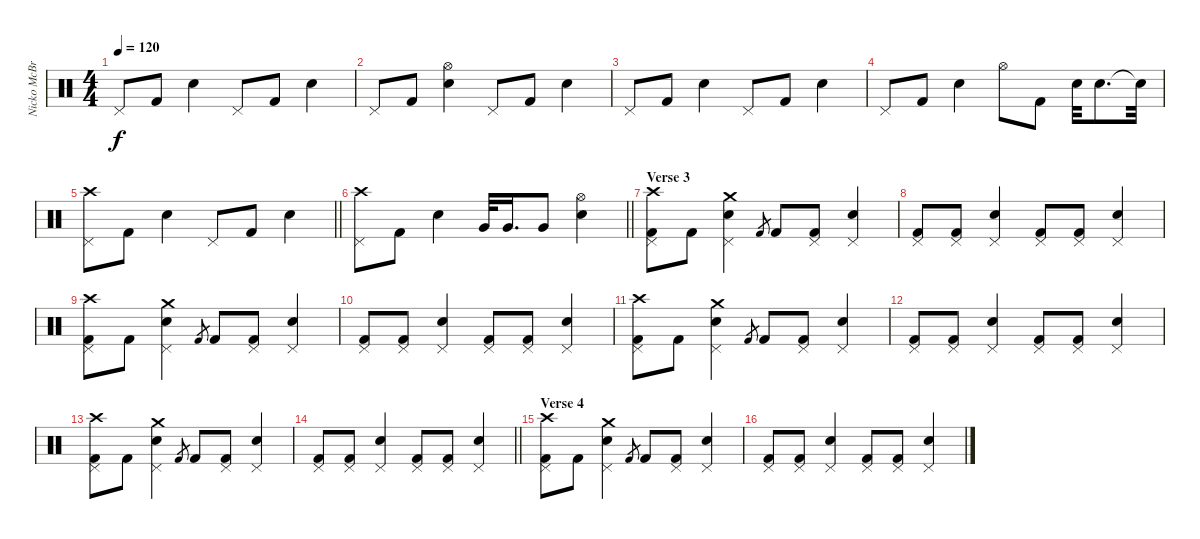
\track ("Nicko McBrain" "Nicko McBr") {instrument percussion}
\staff {score}
\articulation defaults
\ts (4 4)
\tempo 120
\clef neutral
\ks c "Pedal Hi-Hat (hit)".8{dy f} "Kick (hit) 2".8 "Electric Snare (hit)".4 "Pedal Hi-Hat (hit)".8 "Kick (hit) 2".8 "Electric Snare (hit)".4
|
"Pedal Hi-Hat (hit)".8 "Kick (hit) 2".8 ("Hi-Hat (open)" "Electric Snare (hit)").4 "Pedal Hi-Hat (hit)".8 "Kick (hit) 2".8 "Electric Snare (hit)".4 |
"Pedal Hi-Hat (hit)".8 "Kick (hit) 2".8 "Electric Snare (hit)".4 "Pedal Hi-Hat (hit)".8 "Kick (hit) 2".8 "Electric Snare (hit)".4 |
"Pedal Hi-Hat (hit)".8 "Kick (hit) 2".8 "Electric Snare (hit)".4 "Hi-Hat (open)".8 "Kick (hit) 2".8 "Electric Snare (hit)".32 "Electric Snare (hit)".8{d} "Electric Snare (hit)"{t}.32 |
\barLineRight lightlight
("Crash high (hit)" "Pedal Hi-Hat (hit)").8 "Kick (hit) 2".8 "Electric Snare (hit)".4 "Pedal Hi-Hat (hit)".8 "Kick (hit) 2".8 "Electric Snare (hit)".4 |
\barLineRight lightlight
("Crash high (hit)" "Pedal Hi-Hat (hit)").8 "Kick (hit) 2".8 "Electric Snare (hit)".4 "Very Low Tom (hit)".32 "Very Low Tom (hit)".16{d} "Very Low Tom (hit)".8 ("Hi-Hat (open)" "Electric Snare (hit)").4 |
\section ("" "Verse 3")
("Crash high (hit)" "Pedal Hi-Hat (hit)" "Kick (hit) 2").8 "Kick (hit) 2".8 ("Pedal Hi-Hat (hit)" "Electric Snare (hit)" "Crash medium (hit)").4 "Kick (hit) 2".8{gr} "Kick (hit) 2".8 ("Pedal Hi-Hat (hit)" "Kick (hit) 2").8 ("Pedal Hi-Hat (hit)" "Electric Snare (hit)").4 |
("Pedal Hi-Hat (hit)" "Kick (hit) 2").8 ("Pedal Hi-Hat (hit)" "Kick (hit) 2").8 ("Pedal Hi-Hat (hit)" "Electric Snare (hit)").4 ("Pedal Hi-Hat (hit)" "Kick (hit) 2").8 ("Pedal Hi-Hat (hit)" "Kick (hit) 2").8 ("Pedal Hi-Hat (hit)" "Electric Snare (hit)").4 |
("Crash high (hit)" "Pedal Hi-Hat (hit)" "Kick (hit) 2").8 "Kick (hit) 2".8 ("Pedal Hi-Hat (hit)" "Electric Snare (hit)" "Crash medium (hit)").4 "Kick (hit) 2".8{gr} "Kick (hit) 2".8 ("Pedal Hi-Hat (hit)" "Kick (hit) 2").8 ("Pedal Hi-Hat (hit)" "Electric Snare (hit)").4 |
("Pedal Hi-Hat (hit)" "Kick (hit) 2").8 ("Pedal Hi-Hat (hit)" "Kick (hit) 2").8 ("Pedal Hi-Hat (hit)" "Electric Snare (hit)").4 ("Pedal Hi-Hat (hit)" "Kick (hit) 2").8 ("Pedal Hi-Hat (hit)" "Kick (hit) 2").8 ("Pedal Hi-Hat (hit)" "Electric Snare (hit)").4 |
("Crash high (hit)" "Pedal Hi-Hat (hit)" "Kick (hit) 2").8 "Kick (hit) 2".8 ("Pedal Hi-Hat (hit)" "Electric Snare (hit)" "Crash medium (hit)").4 "Kick (hit) 2".8{gr} "Kick (hit) 2".8 ("Pedal Hi-Hat (hit)" "Kick (hit) 2").8 ("Pedal Hi-Hat (hit)" "Electric Snare (hit)").4 |
("Pedal Hi-Hat (hit)" "Kick (hit) 2").8 ("Pedal Hi-Hat (hit)" "Kick (hit) 2").8 ("Pedal Hi-Hat (hit)" "Electric Snare (hit)").4 ("Pedal Hi-Hat (hit)" "Kick (hit) 2").8 ("Pedal Hi-Hat (hit)" "Kick (hit) 2").8 ("Pedal Hi-Hat (hit)" "Electric Snare (hit)").4 |
("Crash high (hit)" "Pedal Hi-Hat (hit)" "Kick (hit) 2").8 "Kick (hit) 2".8 ("Pedal Hi-Hat (hit)" "Electric Snare (hit)" "Crash medium (hit)").4 "Kick (hit) 2".8{gr} "Kick (hit) 2".8 ("Pedal Hi-Hat (hit)" "Kick (hit) 2").8 ("Pedal Hi-Hat (hit)" "Electric Snare (hit)").4 |
\barLineRight lightlight
("Pedal Hi-Hat (hit)" "Kick (hit) 2").8 ("Pedal Hi-Hat (hit)" "Kick (hit) 2").8 ("Pedal Hi-Hat (hit)" "Electric Snare (hit)").4 ("Pedal Hi-Hat (hit)" "Kick (hit) 2").8 ("Pedal Hi-Hat (hit)" "Kick (hit) 2").8 ("Pedal Hi-Hat (hit)" "Electric Snare (hit)").4 |
\section ("" "Verse 4")
("Crash high (hit)" "Pedal Hi-Hat (hit)" "Kick (hit) 2").8 "Kick (hit) 2".8 ("Pedal Hi-Hat (hit)" "Electric Snare (hit)" "Crash medium (hit)").4 "Kick (hit) 2".8{gr} "Kick (hit) 2".8 ("Pedal Hi-Hat (hit)" "Kick (hit) 2").8 ("Pedal Hi-Hat (hit)" "Electric Snare (hit)").4 |
("Pedal Hi-Hat (hit)" "Kick (hit) 2").8 ("Pedal Hi-Hat (hit)" "Kick (hit) 2").8 ("Pedal Hi-Hat (hit)" "Electric Snare (hit)").4 ("Pedal Hi-Hat (hit)" "Kick (hit) 2").8 ("Pedal Hi-Hat (hit)" "Kick (hit) 2").8 ("Pedal Hi-Hat (hit)" "Electric Snare (hit)").4
